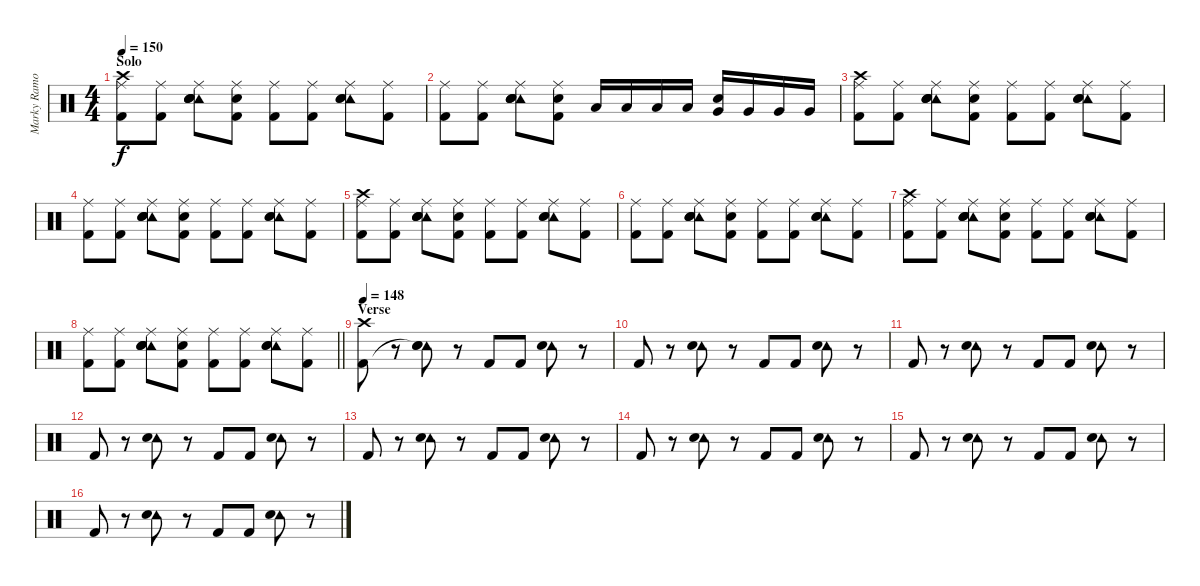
\track ("Marky Ramone - Drum" "Marky Ramo") {instrument percussion}
\staff {score}
\articulation defaults
\ts (4 4)
\section ("" "Solo")
\tempo 150
\clef neutral
\ks c
("Ride (middle)" "Crash high (hit)" "Kick (hit) 2").8{dy f} ("Ride (middle)" "Kick (hit) 2").8 ("Ride (middle)" "Tambourine (hit)" "Hand Clap (hit)" "Snare (hit) 2" "Hand Clap (hit)").8 ("Ride (middle)" "Hand Clap (hit)" "Kick (hit) 2").8 ("Ride (middle)" "Kick (hit) 2").8 ("Ride (middle)" "Kick (hit) 2").8 ("Ride (middle)" "Tambourine (hit)" "Hand Clap (hit)" "Snare (hit) 2").8 ("Ride (middle)" "Kick (hit) 2").8 |
("Ride (middle)" "Kick (hit) 2").8 ("Ride (middle)" "Kick (hit) 2").8 ("Ride (middle)" "Tambourine (hit)" "Hand Clap (hit)" "Snare (hit) 2" "Hand Clap (hit)").8 ("Ride (middle)" "Hand Clap (hit)" "Kick (hit) 2").8 "Low Tom (hit)".16 "Low Tom (hit)".16 "Low Tom (hit)".16 "Low Tom (hit)".16 ("Hand Clap (hit)" "Very Low Tom (hit)").16 "Very Low Tom (hit)".16 "Very Low Tom (hit)".16 "Very Low Tom (hit)".16 |
("Ride (middle)" "Crash high (hit)" "Kick (hit) 2").8 ("Ride (middle)" "Kick (hit) 2").8 ("Ride (middle)" "Tambourine (hit)" "Hand Clap (hit)" "Snare (hit) 2" "Hand Clap (hit)").8 ("Ride (middle)" "Hand Clap (hit)" "Kick (hit) 2").8 ("Ride (middle)" "Kick (hit) 2").8 ("Ride (middle)" "Kick (hit) 2").8 ("Ride (middle)" "Tambourine (hit)" "Hand Clap (hit)" "Snare (hit) 2").8 ("Ride (middle)" "Kick (hit) 2").8 |
("Ride (middle)" "Kick (hit) 2").8 ("Ride (middle)" "Kick (hit) 2").8 ("Ride (middle)" "Tambourine (hit)" "Hand Clap (hit)" "Snare (hit) 2" "Hand Clap (hit)").8 ("Ride (middle)" "Hand Clap (hit)" "Kick (hit) 2").8 ("Ride (middle)" "Kick (hit) 2").8 ("Ride (middle)" "Kick (hit) 2").8 ("Ride (middle)" "Tambourine (hit)" "Hand Clap (hit)" "Snare (hit) 2").8 ("Ride (middle)" "Kick (hit) 2").8 |
("Ride (middle)" "Crash high (hit)" "Kick (hit) 2").8 ("Ride (middle)" "Kick (hit) 2").8 ("Ride (middle)" "Tambourine (hit)" "Hand Clap (hit)" "Snare (hit) 2" "Hand Clap (hit)").8 ("Ride (middle)" "Hand Clap (hit)" "Kick (hit) 2").8 ("Ride (middle)" "Kick (hit) 2").8 ("Ride (middle)" "Kick (hit) 2").8 ("Ride (middle)" "Tambourine (hit)" "Hand Clap (hit)" "Snare (hit) 2").8 ("Ride (middle)" "Kick (hit) 2").8 |
("Ride (middle)" "Kick (hit) 2").8 ("Ride (middle)" "Kick (hit) 2").8 ("Ride (middle)" "Tambourine (hit)" "Hand Clap (hit)" "Snare (hit) 2" "Hand Clap (hit)").8 ("Ride (middle)" "Hand Clap (hit)" "Kick (hit) 2").8 ("Ride (middle)" "Kick (hit) 2").8 ("Ride (middle)" "Kick (hit) 2").8 ("Ride (middle)" "Tambourine (hit)" "Hand Clap (hit)" "Snare (hit) 2").8 ("Ride (middle)" "Kick (hit) 2").8 |
("Ride (middle)" "Crash high (hit)" "Kick (hit) 2").8 ("Ride (middle)" "Kick (hit) 2").8 ("Ride (middle)" "Tambourine (hit)" "Hand Clap (hit)" "Snare (hit) 2" "Hand Clap (hit)").8 ("Ride (middle)" "Hand Clap (hit)" "Kick (hit) 2").8 ("Ride (middle)" "Kick (hit) 2").8 ("Ride (middle)" "Kick (hit) 2").8 ("Ride (middle)" "Tambourine (hit)" "Hand Clap (hit)" "Snare (hit) 2").8 ("Ride (middle)" "Kick (hit) 2").8 |
\barLineRight lightlight
("Ride (middle)" "Kick (hit) 2").8 ("Ride (middle)" "Kick (hit) 2").8 ("Ride (middle)" "Tambourine (hit)" "Hand Clap (hit)" "Snare (hit) 2" "Hand Clap (hit)").8 ("Ride (middle)" "Hand Clap (hit)" "Kick (hit) 2").8 ("Ride (middle)" "Kick (hit) 2").8 ("Ride (middle)" "Kick (hit) 2").8 ("Ride (middle)" "Tambourine (hit)" "Hand Clap (hit)" "Snare (hit) 2").8 ("Ride (middle)" "Kick (hit) 2").8 |
\section ("" "Verse")
\tempo 148
("Crash high (hit)" "Kick (hit) 2").8 r.8 ("Tambourine (hit)" "Snare (hit)"{t} "Snare (hit) 2").8 r.8 "Kick (hit) 2".8 "Kick (hit) 2".8 ("Tambourine (hit)" "Snare (hit) 2").8 r.8 |
"Kick (hit) 2".8 r.8 ("Tambourine (hit)" "Snare (hit) 2").8 r.8 "Kick (hit) 2".8 "Kick (hit) 2".8 ("Tambourine (hit)" "Snare (hit) 2").8 r.8 |
"Kick (hit) 2".8 r.8 ("Tambourine (hit)" "Snare (hit) 2").8 r.8 "Kick (hit) 2".8 "Kick (hit) 2".8 ("Tambourine (hit)" "Snare (hit) 2").8 r.8 |
"Kick (hit) 2".8 r.8 ("Tambourine (hit)" "Snare (hit) 2").8 r.8 "Kick (hit) 2".8 "Kick (hit) 2".8 ("Tambourine (hit)" "Snare (hit) 2").8 r.8 |
"Kick (hit) 2".8 r.8 ("Tambourine (hit)" "Snare (hit) 2").8 r.8 "Kick (hit) 2".8 "Kick (hit) 2".8 ("Tambourine (hit)" "Snare (hit) 2").8 r.8 |
"Kick (hit) 2".8 r.8 ("Tambourine (hit)" "Snare (hit) 2").8 r.8 "Kick (hit) 2".8 "Kick (hit) 2".8 ("Tambourine (hit)" "Snare (hit) 2").8 r.8 |
"Kick (hit) 2".8 r.8 ("Tambourine (hit)" "Snare (hit) 2").8 r.8 "Kick (hit) 2".8 "Kick (hit) 2".8 ("Tambourine (hit)" "Snare (hit) 2").8 r.8 |
"Kick (hit) 2".8 r.8 ("Tambourine (hit)" "Snare (hit) 2").8 r.8 "Kick (hit) 2".8 "Kick (hit) 2".8 ("Tambourine (hit)" "Snare (hit) 2").8 r.8
